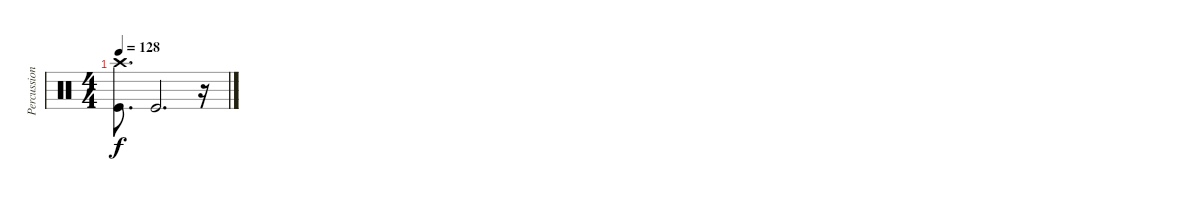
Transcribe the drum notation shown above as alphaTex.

\track ("Percussion" "Percussion") {instrument percussion bank 177}
\staff {score}
\articulation defaults
\ts (4 4)
\tempo 128
\clef neutral
\ks c
("Crash high (hit)" "Kick (hit)").8{d dy f} "Kick (hit)".2{d} r.16
